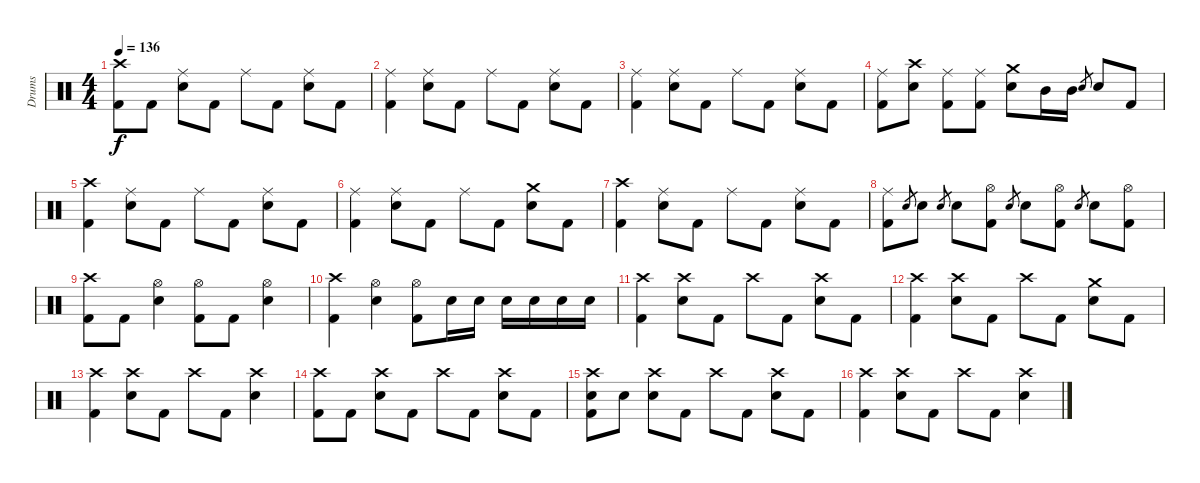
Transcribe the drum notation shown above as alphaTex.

\track ("Drums" "Drums") {instrument percussion}
\staff {score}
\articulation defaults
\ts (4 4)
\tempo 136
\clef neutral
\ks c
("Crash high (hit)" "Kick (hit) 2").8{dy f} "Kick (hit) 2".8 ("Ride (middle)" "Electric Snare (hit)").8 "Kick (hit) 2".8 "Ride (middle)".8 "Kick (hit) 2".8 ("Ride (middle)" "Electric Snare (hit)").8 "Kick (hit) 2".8 |
("Ride (middle)" "Kick (hit) 2").4 ("Ride (middle)" "Electric Snare (hit)").8 "Kick (hit) 2".8 "Ride (middle)".8 "Kick (hit) 2".8 ("Ride (middle)" "Electric Snare (hit)").8 "Kick (hit) 2".8 |
("Ride (middle)" "Kick (hit) 2").4 ("Ride (middle)" "Electric Snare (hit)").8 "Kick (hit) 2".8 "Ride (middle)".8 "Kick (hit) 2".8 ("Ride (middle)" "Electric Snare (hit)").8 "Kick (hit) 2".8 |
("Ride (middle)" "Kick (hit) 2").8 ("Crash high (hit)" "Electric Snare (hit)").8 ("Ride (middle)" "Kick (hit) 2").8 ("Ride (middle)" "Kick (hit) 2").8 ("Crash medium (hit)" "Electric Snare (hit)").8 "Mid Tom (hit)".16 "Mid Tom (hit)".16 "Electric Snare (hit)".8{gr} "Electric Snare (hit)".8 "Kick (hit) 2".8 |
("Crash high (hit)" "Kick (hit) 2").4 ("Ride (middle)" "Electric Snare (hit)").8 "Kick (hit) 2".8 "Ride (middle)".8 "Kick (hit) 2".8 ("Ride (middle)" "Electric Snare (hit)").8 "Kick (hit) 2".8 |
("Ride (middle)" "Kick (hit) 2").4 ("Ride (middle)" "Electric Snare (hit)").8 "Kick (hit) 2".8 "Ride (middle)".8 "Kick (hit) 2".8 ("Crash medium (hit)" "Electric Snare (hit)").8 "Kick (hit) 2".8 |
("Crash high (hit)" "Kick (hit) 2").4 ("Ride (middle)" "Electric Snare (hit)").8 "Kick (hit) 2".8 "Ride (middle)".8 "Kick (hit) 2".8 ("Ride (middle)" "Electric Snare (hit)").8 "Kick (hit) 2".8 |
("Ride (middle)" "Kick (hit) 2").8 "Electric Snare (hit)".8{gr} "Electric Snare (hit)".8 "Electric Snare (hit)".8{gr} "Electric Snare (hit)".8 ("Hi-Hat (open)" "Kick (hit) 2").8 "Electric Snare (hit)".8{gr} "Electric Snare (hit)".8 ("Hi-Hat (open)" "Kick (hit) 2").8 "Electric Snare (hit)".8{gr} "Electric Snare (hit)".8 ("Hi-Hat (open)" "Kick (hit) 2").8 |
("Crash high (hit)" "Kick (hit) 2").8 "Kick (hit) 2".8 ("Hi-Hat (open)" "Electric Snare (hit)").4 ("Hi-Hat (open)" "Kick (hit) 2").8 "Kick (hit) 2".8 ("Hi-Hat (open)" "Electric Snare (hit)").4 |
("Crash high (hit)" "Kick (hit) 2").4 ("Hi-Hat (open)" "Electric Snare (hit)").4 ("Hi-Hat (open)" "Kick (hit) 2").8 "Electric Snare (hit)".16 "Electric Snare (hit)".16 "Electric Snare (hit)".16 "Electric Snare (hit)".16 "Electric Snare (hit)".16 "Electric Snare (hit)".16 |
("Crash high (hit)" "Kick (hit) 2").4 ("Crash high (hit)" "Electric Snare (hit)").8 "Kick (hit) 2".8 "Crash high (hit)".8 "Kick (hit) 2".8 ("Crash high (hit)" "Electric Snare (hit)").8 "Kick (hit) 2".8 |
("Crash high (hit)" "Kick (hit) 2").4 ("Crash high (hit)" "Electric Snare (hit)").8 "Kick (hit) 2".8 "Crash high (hit)".8 "Kick (hit) 2".8 ("Crash medium (hit)" "Electric Snare (hit)").8 "Kick (hit) 2".8 |
("Crash high (hit)" "Kick (hit) 2").4 ("Crash high (hit)" "Electric Snare (hit)").8 "Kick (hit) 2".8 "Crash high (hit)".8 "Kick (hit) 2".8 ("Crash high (hit)" "Electric Snare (hit)").4 |
("Crash high (hit)" "Kick (hit) 2").8 "Kick (hit) 2".8 ("Crash high (hit)" "Electric Snare (hit)").8 "Kick (hit) 2".8 "Crash high (hit)".8 "Kick (hit) 2".8 ("Crash high (hit)" "Electric Snare (hit)").8 "Kick (hit) 2".8 |
("Crash high (hit)" "Electric Snare (hit)" "Kick (hit) 2").8 "Electric Snare (hit)".8 ("Crash high (hit)" "Electric Snare (hit)").8 "Kick (hit) 2".8 "Crash high (hit)".8 "Kick (hit) 2".8 ("Crash high (hit)" "Electric Snare (hit)").8 "Kick (hit) 2".8 |
("Crash high (hit)" "Kick (hit) 2").4 ("Crash high (hit)" "Electric Snare (hit)").8 "Kick (hit) 2".8 "Crash high (hit)".8 "Kick (hit) 2".8 ("Crash high (hit)" "Electric Snare (hit)").4
